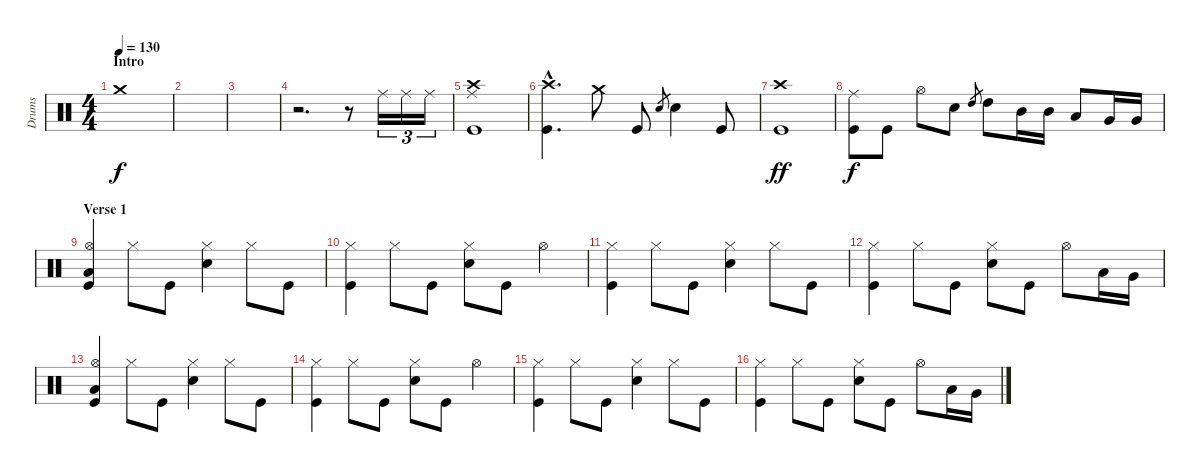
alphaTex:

\track ("Drums" "Drums") {instrument percussion}
\staff {score}
\articulation defaults
\ts (4 4)
\section ("" "Intro")
\tempo 130
\clef neutral
\ks c "Crash medium (hit)".1{dy f}
|
|
|
r.2{d} r.8 "Ride (middle)".16{tu (3 2)} "Ride (middle)".16{tu (3 2)} "Ride (middle)".16{tu (3 2)} |
("Ride (middle)" "Crash high (hit)" "Kick (hit)").1 |
("Crash high (hit)"{hac} "Kick (hit)"{hac}).4{d} "Crash medium (hit)".8 "Kick (hit)".8 "Snare (hit) 2".8{gr} "Snare (hit) 2".4 "Kick (hit)".8 |
("Crash high (hit)" "Kick (hit)").1{dy ff} |
("Ride (middle)" "Kick (hit)").8{dy f} "Kick (hit)".8 "Hi-Hat (open)".8 "Snare (hit) 2".8 "High Tom (hit)".8{gr} "High Tom (hit)".8 "Mid Tom (hit)".16 "Mid Tom (hit)".16 "Low Tom (hit)".8 "Very Low Tom (hit)".16 "Very Low Tom (hit)".16 |
\section ("" "Verse 1")
("Hi-Hat (open)" "Low Floor Tom (hit)" "Kick (hit)").4 "Hi-Hat (closed)".8 "Kick (hit)".8 ("Hi-Hat (closed)" "Snare (hit) 2").4 "Hi-Hat (closed)".8 "Kick (hit)".8 |
("Hi-Hat (closed)" "Kick (hit)").4 "Hi-Hat (closed)".8 "Kick (hit)".8 ("Hi-Hat (closed)" "Snare (hit) 2").8 "Kick (hit)".8 "Hi-Hat (open)".4 |
("Hi-Hat (closed)" "Kick (hit)").4 "Hi-Hat (closed)".8 "Kick (hit)".8 ("Hi-Hat (closed)" "Snare (hit) 2").4 "Hi-Hat (closed)".8 "Kick (hit)".8 |
("Hi-Hat (closed)" "Kick (hit)").4 "Hi-Hat (closed)".8 "Kick (hit)".8 ("Hi-Hat (closed)" "Snare (hit) 2").8 "Kick (hit)".8 "Hi-Hat (open)".8 "Low Tom (hit)".16 "Very Low Tom (hit)".16 |
("Hi-Hat (open)" "Low Floor Tom (hit)" "Kick (hit)").4 "Hi-Hat (closed)".8 "Kick (hit)".8 ("Hi-Hat (closed)" "Snare (hit) 2").4 "Hi-Hat (closed)".8 "Kick (hit)".8 |
("Hi-Hat (closed)" "Kick (hit)").4 "Hi-Hat (closed)".8 "Kick (hit)".8 ("Hi-Hat (closed)" "Snare (hit) 2").8 "Kick (hit)".8 "Hi-Hat (open)".4 |
("Hi-Hat (closed)" "Kick (hit)").4 "Hi-Hat (closed)".8 "Kick (hit)".8 ("Hi-Hat (closed)" "Snare (hit) 2").4 "Hi-Hat (closed)".8 "Kick (hit)".8 |
("Hi-Hat (closed)" "Kick (hit)").4 "Hi-Hat (closed)".8 "Kick (hit)".8 ("Hi-Hat (closed)" "Snare (hit) 2").8 "Kick (hit)".8 "Hi-Hat (open)".8 "Low Tom (hit)".16 "Very Low Tom (hit)".16
